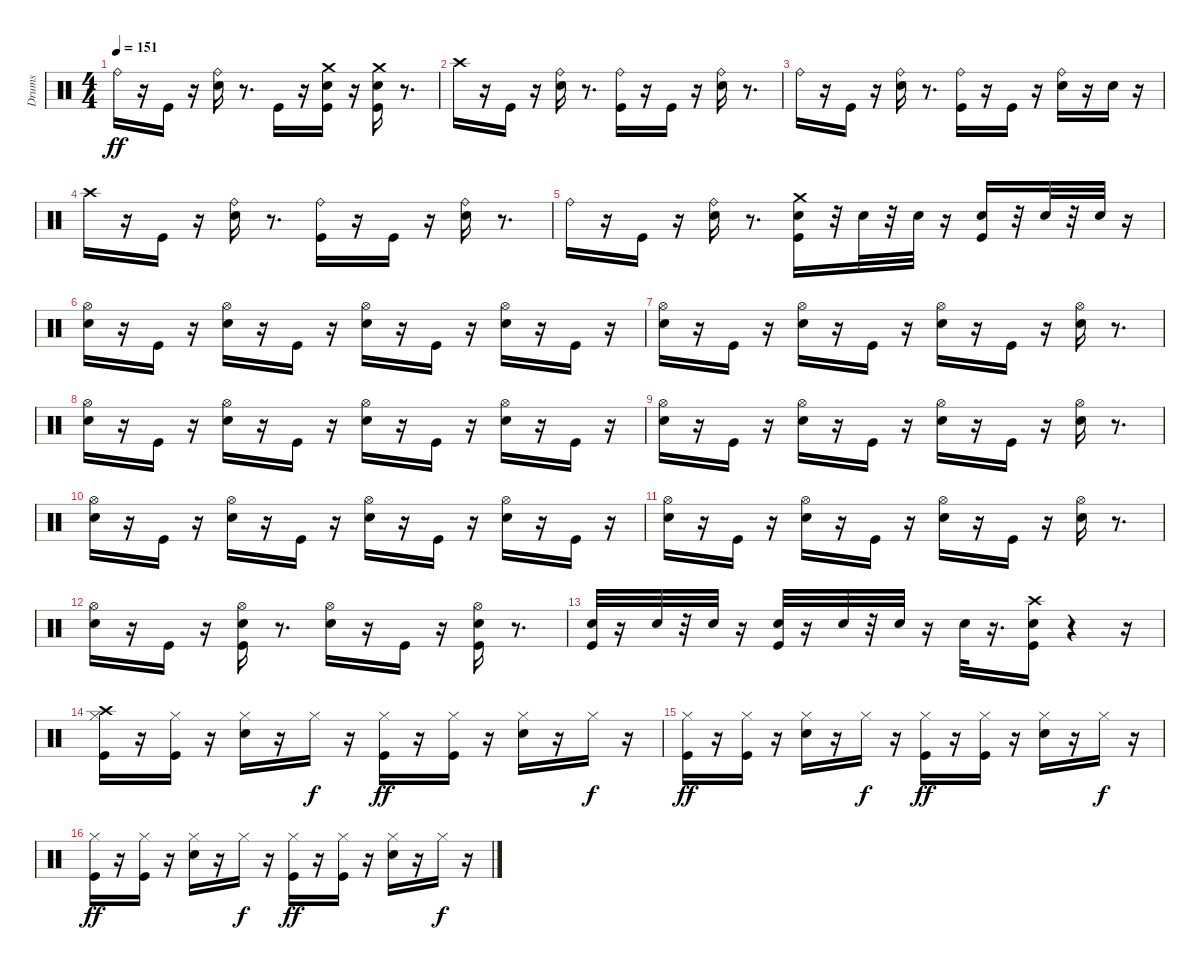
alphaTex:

\track ("Drums" "Drums") {instrument percussion}
\staff {score}
\articulation defaults
\ts (4 4)
\tempo 151
\clef neutral
\ks c "Ride (bell)".16{dy ff}
r.16 "Kick (hit)".16 r.16 ("Snare (hit) 2" "Ride (bell)").16 r.8{d} "Kick (hit)".16 r.16 ("Kick (hit)" "Snare (hit) 2" "Crash medium (hit)").16 r.16 ("Kick (hit)" "Snare (hit) 2" "Crash medium (hit)").16 r.8{d} |
"Crash high (hit)".16 r.16 "Kick (hit)".16 r.16 ("Snare (hit) 2" "Ride (bell)").16 r.8{d} ("Kick (hit)" "Ride (bell)").16 r.16 "Kick (hit)".16 r.16 ("Snare (hit) 2" "Ride (bell)").16 r.8{d} |
"Ride (bell)".16 r.16 "Kick (hit)".16 r.16 ("Snare (hit) 2" "Ride (bell)").16 r.8{d} ("Kick (hit)" "Ride (bell)").16 r.16 "Kick (hit)".16 r.16 ("Snare (hit) 2" "Ride (bell)").16 r.16 "Snare (hit) 2".16 r.16 |
"Crash high (hit)".16 r.16 "Kick (hit)".16 r.16 ("Snare (hit) 2" "Ride (bell)").16 r.8{d} ("Kick (hit)" "Ride (bell)").16 r.16 "Kick (hit)".16 r.16 ("Snare (hit) 2" "Ride (bell)").16 r.8{d} |
"Ride (bell)".16 r.16 "Kick (hit)".16 r.16 ("Snare (hit) 2" "Ride (bell)").16 r.8{d} ("Kick (hit)" "Snare (hit) 2" "Crash medium (hit)").16 r.32 "Snare (hit) 2".32 r.32 "Snare (hit) 2".32 r.16 ("Kick (hit)" "Snare (hit) 2").16 r.32 "Snare (hit) 2".32 r.32 "Snare (hit) 2".32 r.16 |
("Snare (hit) 2" "Hi-Hat (open)").16 r.16 "Kick (hit)".16 r.16 ("Snare (hit) 2" "Hi-Hat (open)").16 r.16 "Kick (hit)".16 r.16 ("Snare (hit) 2" "Hi-Hat (open)").16 r.16 "Kick (hit)".16 r.16 ("Snare (hit) 2" "Hi-Hat (open)").16 r.16 "Kick (hit)".16 r.16 |
("Snare (hit) 2" "Hi-Hat (open)").16 r.16 "Kick (hit)".16 r.16 ("Snare (hit) 2" "Hi-Hat (open)").16 r.16 "Kick (hit)".16 r.16 ("Snare (hit) 2" "Hi-Hat (open)").16 r.16 "Kick (hit)".16 r.16 ("Snare (hit) 2" "Hi-Hat (open)").16 r.8{d} |
("Snare (hit) 2" "Hi-Hat (open)").16 r.16 "Kick (hit)".16 r.16 ("Snare (hit) 2" "Hi-Hat (open)").16 r.16 "Kick (hit)".16 r.16 ("Snare (hit) 2" "Hi-Hat (open)").16 r.16 "Kick (hit)".16 r.16 ("Snare (hit) 2" "Hi-Hat (open)").16 r.16 "Kick (hit)".16 r.16 |
("Snare (hit) 2" "Hi-Hat (open)").16 r.16 "Kick (hit)".16 r.16 ("Snare (hit) 2" "Hi-Hat (open)").16 r.16 "Kick (hit)".16 r.16 ("Snare (hit) 2" "Hi-Hat (open)").16 r.16 "Kick (hit)".16 r.16 ("Snare (hit) 2" "Hi-Hat (open)").16 r.8{d} |
("Snare (hit) 2" "Hi-Hat (open)").16 r.16 "Kick (hit)".16 r.16 ("Snare (hit) 2" "Hi-Hat (open)").16 r.16 "Kick (hit)".16 r.16 ("Snare (hit) 2" "Hi-Hat (open)").16 r.16 "Kick (hit)".16 r.16 ("Snare (hit) 2" "Hi-Hat (open)").16 r.16 "Kick (hit)".16 r.16 |
("Snare (hit) 2" "Hi-Hat (open)").16 r.16 "Kick (hit)".16 r.16 ("Snare (hit) 2" "Hi-Hat (open)").16 r.16 "Kick (hit)".16 r.16 ("Snare (hit) 2" "Hi-Hat (open)").16 r.16 "Kick (hit)".16 r.16 ("Snare (hit) 2" "Hi-Hat (open)").16 r.8{d} |
("Snare (hit) 2" "Hi-Hat (open)").16 r.16 "Kick (hit)".16 r.16 ("Kick (hit)" "Snare (hit) 2" "Hi-Hat (open)").16 r.8{d} ("Snare (hit) 2" "Hi-Hat (open)").16 r.16 "Kick (hit)".16 r.16 ("Kick (hit)" "Snare (hit) 2" "Hi-Hat (open)").16 r.8{d} |
("Kick (hit)" "Snare (hit) 2").32 r.16 "Snare (hit) 2".32 r.32 "Snare (hit) 2".32 r.16 ("Kick (hit)" "Snare (hit) 2").32 r.16 "Snare (hit) 2".32 r.32 "Snare (hit) 2".32 r.16 "Snare (hit) 2".32 r.16{d} ("Kick (hit)" "Snare (hit) 2" "Crash high (hit)").16 r.4 r.16 |
("Kick (hit)" "Hi-Hat (closed)" "Crash high (hit)").16 r.16 ("Kick (hit)" "Hi-Hat (closed)").16 r.16 ("Snare (hit) 2" "Hi-Hat (closed)").16 r.16 "Hi-Hat (closed)".16{dy f} r.16 ("Kick (hit)" "Hi-Hat (closed)").16{dy ff} r.16 ("Kick (hit)" "Hi-Hat (closed)").16 r.16 ("Snare (hit) 2" "Hi-Hat (closed)").16 r.16 "Hi-Hat (closed)".16{dy f} r.16 |
("Kick (hit)" "Hi-Hat (closed)").16{dy ff} r.16 ("Kick (hit)" "Hi-Hat (closed)").16 r.16 ("Snare (hit) 2" "Hi-Hat (closed)").16 r.16 "Hi-Hat (closed)".16{dy f} r.16 ("Kick (hit)" "Hi-Hat (closed)").16{dy ff} r.16 ("Kick (hit)" "Hi-Hat (closed)").16 r.16 ("Snare (hit) 2" "Hi-Hat (closed)").16 r.16 "Hi-Hat (closed)".16{dy f} r.16 |
("Kick (hit)" "Hi-Hat (closed)").16{dy ff} r.16 ("Kick (hit)" "Hi-Hat (closed)").16 r.16 ("Snare (hit) 2" "Hi-Hat (closed)").16 r.16 "Hi-Hat (closed)".16{dy f} r.16 ("Kick (hit)" "Hi-Hat (closed)").16{dy ff} r.16 ("Kick (hit)" "Hi-Hat (closed)").16 r.16 ("Snare (hit) 2" "Hi-Hat (closed)").16 r.16 "Hi-Hat (closed)".16{dy f} r.16
